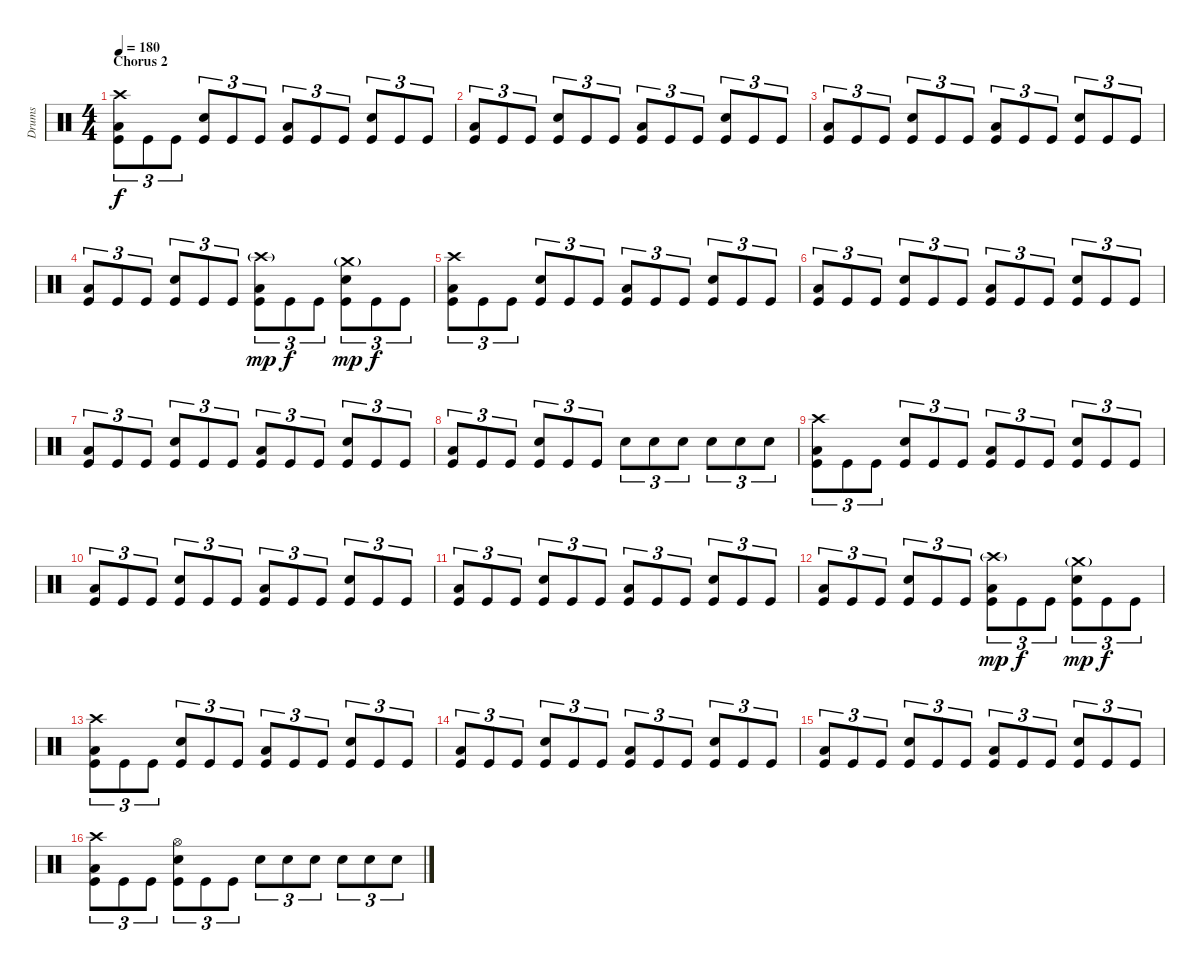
\track ("Drums" "Drums") {instrument percussion}
\staff {score}
\articulation defaults
\ts (4 4)
\section ("" "Chorus 2")
\tempo 180
\clef neutral
\ks c
("Crash high (hit)" "Low Tom (hit)" "Kick (hit)").8{tu (3 2) dy f} "Kick (hit)".8{tu (3 2)} "Kick (hit)".8{tu (3 2)} ("Snare (hit) 2" "Kick (hit)").8{tu (3 2)} "Kick (hit)".8{tu (3 2)} "Kick (hit)".8{tu (3 2)} ("Low Tom (hit)" "Kick (hit)").8{tu (3 2)} "Kick (hit)".8{tu (3 2)} "Kick (hit)".8{tu (3 2)} ("Snare (hit) 2" "Kick (hit)").8{tu (3 2)} "Kick (hit)".8{tu (3 2)} "Kick (hit)".8{tu (3 2)} |
("Low Tom (hit)" "Kick (hit)").8{tu (3 2)} "Kick (hit)".8{tu (3 2)} "Kick (hit)".8{tu (3 2)} ("Snare (hit) 2" "Kick (hit)").8{tu (3 2)} "Kick (hit)".8{tu (3 2)} "Kick (hit)".8{tu (3 2)} ("Low Tom (hit)" "Kick (hit)").8{tu (3 2)} "Kick (hit)".8{tu (3 2)} "Kick (hit)".8{tu (3 2)} ("Snare (hit) 2" "Kick (hit)").8{tu (3 2)} "Kick (hit)".8{tu (3 2)} "Kick (hit)".8{tu (3 2)} |
("Low Tom (hit)" "Kick (hit)").8{tu (3 2)} "Kick (hit)".8{tu (3 2)} "Kick (hit)".8{tu (3 2)} ("Snare (hit) 2" "Kick (hit)").8{tu (3 2)} "Kick (hit)".8{tu (3 2)} "Kick (hit)".8{tu (3 2)} ("Low Tom (hit)" "Kick (hit)").8{tu (3 2)} "Kick (hit)".8{tu (3 2)} "Kick (hit)".8{tu (3 2)} ("Snare (hit) 2" "Kick (hit)").8{tu (3 2)} "Kick (hit)".8{tu (3 2)} "Kick (hit)".8{tu (3 2)} |
("Low Tom (hit)" "Kick (hit)").8{tu (3 2)} "Kick (hit)".8{tu (3 2)} "Kick (hit)".8{tu (3 2)} ("Snare (hit) 2" "Kick (hit)").8{tu (3 2)} "Kick (hit)".8{tu (3 2)} "Kick (hit)".8{tu (3 2)} ("Crash high (hit)"{g} "Low Tom (hit)" "Kick (hit)").8{tu (3 2) dy mp} "Kick (hit)".8{tu (3 2) dy f} "Kick (hit)".8{tu (3 2)} ("Crash medium (hit)"{g} "Snare (hit) 2" "Kick (hit)").8{tu (3 2) dy mp} "Kick (hit)".8{tu (3 2) dy f} "Kick (hit)".8{tu (3 2)} |
("Crash high (hit)" "Low Tom (hit)" "Kick (hit)").8{tu (3 2)} "Kick (hit)".8{tu (3 2)} "Kick (hit)".8{tu (3 2)} ("Snare (hit) 2" "Kick (hit)").8{tu (3 2)} "Kick (hit)".8{tu (3 2)} "Kick (hit)".8{tu (3 2)} ("Low Tom (hit)" "Kick (hit)").8{tu (3 2)} "Kick (hit)".8{tu (3 2)} "Kick (hit)".8{tu (3 2)} ("Snare (hit) 2" "Kick (hit)").8{tu (3 2)} "Kick (hit)".8{tu (3 2)} "Kick (hit)".8{tu (3 2)} |
("Low Tom (hit)" "Kick (hit)").8{tu (3 2)} "Kick (hit)".8{tu (3 2)} "Kick (hit)".8{tu (3 2)} ("Snare (hit) 2" "Kick (hit)").8{tu (3 2)} "Kick (hit)".8{tu (3 2)} "Kick (hit)".8{tu (3 2)} ("Low Tom (hit)" "Kick (hit)").8{tu (3 2)} "Kick (hit)".8{tu (3 2)} "Kick (hit)".8{tu (3 2)} ("Snare (hit) 2" "Kick (hit)").8{tu (3 2)} "Kick (hit)".8{tu (3 2)} "Kick (hit)".8{tu (3 2)} |
("Low Tom (hit)" "Kick (hit)").8{tu (3 2)} "Kick (hit)".8{tu (3 2)} "Kick (hit)".8{tu (3 2)} ("Snare (hit) 2" "Kick (hit)").8{tu (3 2)} "Kick (hit)".8{tu (3 2)} "Kick (hit)".8{tu (3 2)} ("Low Tom (hit)" "Kick (hit)").8{tu (3 2)} "Kick (hit)".8{tu (3 2)} "Kick (hit)".8{tu (3 2)} ("Snare (hit) 2" "Kick (hit)").8{tu (3 2)} "Kick (hit)".8{tu (3 2)} "Kick (hit)".8{tu (3 2)} |
("Low Tom (hit)" "Kick (hit)").8{tu (3 2)} "Kick (hit)".8{tu (3 2)} "Kick (hit)".8{tu (3 2)} ("Snare (hit) 2" "Kick (hit)").8{tu (3 2)} "Kick (hit)".8{tu (3 2)} "Kick (hit)".8{tu (3 2)} "Snare (hit) 2".8{tu (3 2)} "Snare (hit) 2".8{tu (3 2)} "Snare (hit) 2".8{tu (3 2)} "Snare (hit) 2".8{tu (3 2)} "Snare (hit) 2".8{tu (3 2)} "Snare (hit) 2".8{tu (3 2)} |
("Crash high (hit)" "Low Tom (hit)" "Kick (hit)").8{tu (3 2)} "Kick (hit)".8{tu (3 2)} "Kick (hit)".8{tu (3 2)} ("Snare (hit) 2" "Kick (hit)").8{tu (3 2)} "Kick (hit)".8{tu (3 2)} "Kick (hit)".8{tu (3 2)} ("Low Tom (hit)" "Kick (hit)").8{tu (3 2)} "Kick (hit)".8{tu (3 2)} "Kick (hit)".8{tu (3 2)} ("Snare (hit) 2" "Kick (hit)").8{tu (3 2)} "Kick (hit)".8{tu (3 2)} "Kick (hit)".8{tu (3 2)} |
("Low Tom (hit)" "Kick (hit)").8{tu (3 2)} "Kick (hit)".8{tu (3 2)} "Kick (hit)".8{tu (3 2)} ("Snare (hit) 2" "Kick (hit)").8{tu (3 2)} "Kick (hit)".8{tu (3 2)} "Kick (hit)".8{tu (3 2)} ("Low Tom (hit)" "Kick (hit)").8{tu (3 2)} "Kick (hit)".8{tu (3 2)} "Kick (hit)".8{tu (3 2)} ("Snare (hit) 2" "Kick (hit)").8{tu (3 2)} "Kick (hit)".8{tu (3 2)} "Kick (hit)".8{tu (3 2)} |
("Low Tom (hit)" "Kick (hit)").8{tu (3 2)} "Kick (hit)".8{tu (3 2)} "Kick (hit)".8{tu (3 2)} ("Snare (hit) 2" "Kick (hit)").8{tu (3 2)} "Kick (hit)".8{tu (3 2)} "Kick (hit)".8{tu (3 2)} ("Low Tom (hit)" "Kick (hit)").8{tu (3 2)} "Kick (hit)".8{tu (3 2)} "Kick (hit)".8{tu (3 2)} ("Snare (hit) 2" "Kick (hit)").8{tu (3 2)} "Kick (hit)".8{tu (3 2)} "Kick (hit)".8{tu (3 2)} |
("Low Tom (hit)" "Kick (hit)").8{tu (3 2)} "Kick (hit)".8{tu (3 2)} "Kick (hit)".8{tu (3 2)} ("Snare (hit) 2" "Kick (hit)").8{tu (3 2)} "Kick (hit)".8{tu (3 2)} "Kick (hit)".8{tu (3 2)} ("Crash high (hit)"{g} "Low Tom (hit)" "Kick (hit)").8{tu (3 2) dy mp} "Kick (hit)".8{tu (3 2) dy f} "Kick (hit)".8{tu (3 2)} ("Crash medium (hit)"{g} "Snare (hit) 2" "Kick (hit)").8{tu (3 2) dy mp} "Kick (hit)".8{tu (3 2) dy f} "Kick (hit)".8{tu (3 2)} |
("Crash high (hit)" "Low Tom (hit)" "Kick (hit)").8{tu (3 2)} "Kick (hit)".8{tu (3 2)} "Kick (hit)".8{tu (3 2)} ("Snare (hit) 2" "Kick (hit)").8{tu (3 2)} "Kick (hit)".8{tu (3 2)} "Kick (hit)".8{tu (3 2)} ("Low Tom (hit)" "Kick (hit)").8{tu (3 2)} "Kick (hit)".8{tu (3 2)} "Kick (hit)".8{tu (3 2)} ("Snare (hit) 2" "Kick (hit)").8{tu (3 2)} "Kick (hit)".8{tu (3 2)} "Kick (hit)".8{tu (3 2)} |
("Low Tom (hit)" "Kick (hit)").8{tu (3 2)} "Kick (hit)".8{tu (3 2)} "Kick (hit)".8{tu (3 2)} ("Snare (hit) 2" "Kick (hit)").8{tu (3 2)} "Kick (hit)".8{tu (3 2)} "Kick (hit)".8{tu (3 2)} ("Low Tom (hit)" "Kick (hit)").8{tu (3 2)} "Kick (hit)".8{tu (3 2)} "Kick (hit)".8{tu (3 2)} ("Snare (hit) 2" "Kick (hit)").8{tu (3 2)} "Kick (hit)".8{tu (3 2)} "Kick (hit)".8{tu (3 2)} |
("Low Tom (hit)" "Kick (hit)").8{tu (3 2)} "Kick (hit)".8{tu (3 2)} "Kick (hit)".8{tu (3 2)} ("Snare (hit) 2" "Kick (hit)").8{tu (3 2)} "Kick (hit)".8{tu (3 2)} "Kick (hit)".8{tu (3 2)} ("Low Tom (hit)" "Kick (hit)").8{tu (3 2)} "Kick (hit)".8{tu (3 2)} "Kick (hit)".8{tu (3 2)} ("Snare (hit) 2" "Kick (hit)").8{tu (3 2)} "Kick (hit)".8{tu (3 2)} "Kick (hit)".8{tu (3 2)} |
("Crash high (hit)" "Low Tom (hit)" "Kick (hit)").8{tu (3 2)} "Kick (hit)".8{tu (3 2)} "Kick (hit)".8{tu (3 2)} ("Hi-Hat (open)" "Snare (hit) 2" "Kick (hit)").8{tu (3 2)} "Kick (hit)".8{tu (3 2)} "Kick (hit)".8{tu (3 2)} "Snare (hit) 2".8{tu (3 2)} "Snare (hit) 2".8{tu (3 2)} "Snare (hit) 2".8{tu (3 2)} "Snare (hit) 2".8{tu (3 2)} "Snare (hit) 2".8{tu (3 2)} "Snare (hit) 2".8{tu (3 2)}
